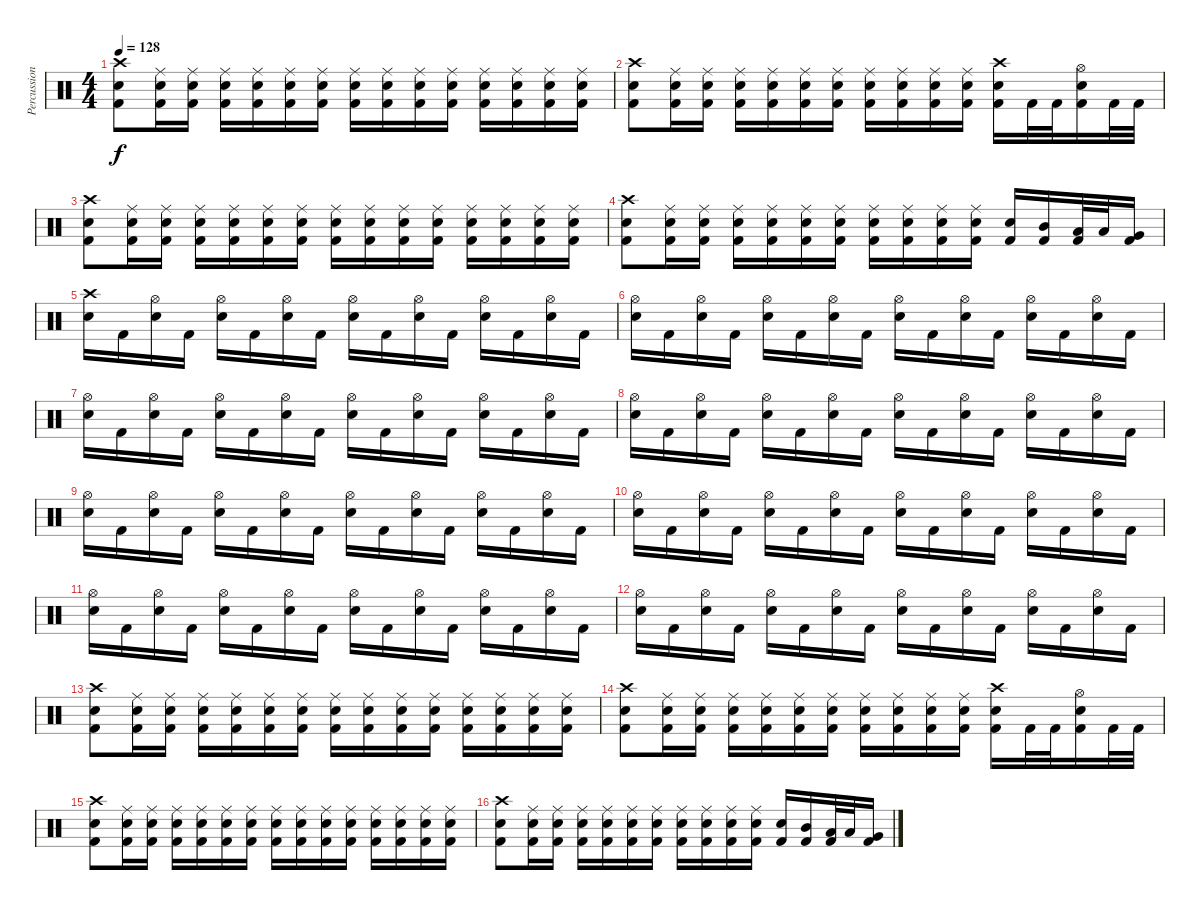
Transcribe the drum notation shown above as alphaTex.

\track ("Percussion" "Percussion") {instrument percussion}
\staff {score}
\articulation defaults
\ts (4 4)
\tempo 128
\clef neutral
\ks c
("Crash high (hit)" "Electric Snare (hit)" "Kick (hit) 2").8{dy f} ("Ride (middle)" "Electric Snare (hit)" "Kick (hit) 2").16 ("Ride (middle)" "Electric Snare (hit)" "Kick (hit) 2").16 ("Ride (middle)" "Electric Snare (hit)" "Kick (hit) 2").16 ("Ride (middle)" "Electric Snare (hit)" "Kick (hit) 2").16 ("Ride (middle)" "Electric Snare (hit)" "Kick (hit) 2").16 ("Ride (middle)" "Electric Snare (hit)" "Kick (hit) 2").16 ("Ride (middle)" "Electric Snare (hit)" "Kick (hit) 2").16 ("Ride (middle)" "Electric Snare (hit)" "Kick (hit) 2").16 ("Ride (middle)" "Electric Snare (hit)" "Kick (hit) 2").16 ("Ride (middle)" "Electric Snare (hit)" "Kick (hit) 2").16 ("Ride (middle)" "Electric Snare (hit)" "Kick (hit) 2").16 ("Ride (middle)" "Electric Snare (hit)" "Kick (hit) 2").16 ("Ride (middle)" "Electric Snare (hit)" "Kick (hit) 2").16 ("Ride (middle)" "Electric Snare (hit)" "Kick (hit) 2").16 |
("Crash high (hit)" "Electric Snare (hit)" "Kick (hit) 2").8 ("Ride (middle)" "Electric Snare (hit)" "Kick (hit) 2").16 ("Ride (middle)" "Electric Snare (hit)" "Kick (hit) 2").16 ("Ride (middle)" "Electric Snare (hit)" "Kick (hit) 2").16 ("Ride (middle)" "Electric Snare (hit)" "Kick (hit) 2").16 ("Ride (middle)" "Electric Snare (hit)" "Kick (hit) 2").16 ("Ride (middle)" "Electric Snare (hit)" "Kick (hit) 2").16 ("Ride (middle)" "Electric Snare (hit)" "Kick (hit) 2").16 ("Ride (middle)" "Electric Snare (hit)" "Kick (hit) 2").16 ("Ride (middle)" "Electric Snare (hit)" "Kick (hit) 2").16 ("Ride (middle)" "Electric Snare (hit)" "Kick (hit) 2").16 ("Crash high (hit)" "Electric Snare (hit)" "Kick (hit) 2").16 "Kick (hit) 2".32 "Kick (hit) 2".32 ("Hi-Hat (open)" "Electric Snare (hit)" "Kick (hit) 2").16 "Kick (hit) 2".32 "Kick (hit) 2".32 |
("Crash high (hit)" "Electric Snare (hit)" "Kick (hit) 2").8 ("Ride (middle)" "Electric Snare (hit)" "Kick (hit) 2").16 ("Ride (middle)" "Electric Snare (hit)" "Kick (hit) 2").16 ("Ride (middle)" "Electric Snare (hit)" "Kick (hit) 2").16 ("Ride (middle)" "Electric Snare (hit)" "Kick (hit) 2").16 ("Ride (middle)" "Electric Snare (hit)" "Kick (hit) 2").16 ("Ride (middle)" "Electric Snare (hit)" "Kick (hit) 2").16 ("Ride (middle)" "Electric Snare (hit)" "Kick (hit) 2").16 ("Ride (middle)" "Electric Snare (hit)" "Kick (hit) 2").16 ("Ride (middle)" "Electric Snare (hit)" "Kick (hit) 2").16 ("Ride (middle)" "Electric Snare (hit)" "Kick (hit) 2").16 ("Ride (middle)" "Electric Snare (hit)" "Kick (hit) 2").16 ("Ride (middle)" "Electric Snare (hit)" "Kick (hit) 2").16 ("Ride (middle)" "Electric Snare (hit)" "Kick (hit) 2").16 ("Ride (middle)" "Electric Snare (hit)" "Kick (hit) 2").16 |
("Crash high (hit)" "Electric Snare (hit)" "Kick (hit) 2").8 ("Ride (middle)" "Electric Snare (hit)" "Kick (hit) 2").16 ("Ride (middle)" "Electric Snare (hit)" "Kick (hit) 2").16 ("Ride (middle)" "Electric Snare (hit)" "Kick (hit) 2").16 ("Ride (middle)" "Electric Snare (hit)" "Kick (hit) 2").16 ("Ride (middle)" "Electric Snare (hit)" "Kick (hit) 2").16 ("Ride (middle)" "Electric Snare (hit)" "Kick (hit) 2").16 ("Ride (middle)" "Electric Snare (hit)" "Kick (hit) 2").16 ("Ride (middle)" "Electric Snare (hit)" "Kick (hit) 2").16 ("Ride (middle)" "Electric Snare (hit)" "Kick (hit) 2").16 ("Ride (middle)" "Electric Snare (hit)" "Kick (hit) 2").16 ("Electric Snare (hit)" "Kick (hit) 2").16 ("Mid Tom (hit)" "Kick (hit) 2").16 ("Low Tom (hit)" "Kick (hit) 2").32 "Low Tom (hit)".32 ("Very Low Tom (hit)" "Kick (hit) 2").16 |
("Crash high (hit)" "Electric Snare (hit)").16 "Kick (hit) 2".16 ("Hi-Hat (open)" "Electric Snare (hit)").16 "Kick (hit) 2".16 ("Hi-Hat (open)" "Electric Snare (hit)").16 "Kick (hit) 2".16 ("Hi-Hat (open)" "Electric Snare (hit)").16 "Kick (hit) 2".16 ("Hi-Hat (open)" "Electric Snare (hit)").16 "Kick (hit) 2".16 ("Hi-Hat (open)" "Electric Snare (hit)").16 "Kick (hit) 2".16 ("Hi-Hat (open)" "Electric Snare (hit)").16 "Kick (hit) 2".16 ("Hi-Hat (open)" "Electric Snare (hit)").16 "Kick (hit) 2".16 |
("Hi-Hat (open)" "Electric Snare (hit)").16 "Kick (hit) 2".16 ("Hi-Hat (open)" "Electric Snare (hit)").16 "Kick (hit) 2".16 ("Hi-Hat (open)" "Electric Snare (hit)").16 "Kick (hit) 2".16 ("Hi-Hat (open)" "Electric Snare (hit)").16 "Kick (hit) 2".16 ("Hi-Hat (open)" "Electric Snare (hit)").16 "Kick (hit) 2".16 ("Hi-Hat (open)" "Electric Snare (hit)").16 "Kick (hit) 2".16 ("Hi-Hat (open)" "Electric Snare (hit)").16 "Kick (hit) 2".16 ("Hi-Hat (open)" "Electric Snare (hit)").16 "Kick (hit) 2".16 |
("Hi-Hat (open)" "Electric Snare (hit)").16 "Kick (hit) 2".16 ("Hi-Hat (open)" "Electric Snare (hit)").16 "Kick (hit) 2".16 ("Hi-Hat (open)" "Electric Snare (hit)").16 "Kick (hit) 2".16 ("Hi-Hat (open)" "Electric Snare (hit)").16 "Kick (hit) 2".16 ("Hi-Hat (open)" "Electric Snare (hit)").16 "Kick (hit) 2".16 ("Hi-Hat (open)" "Electric Snare (hit)").16 "Kick (hit) 2".16 ("Hi-Hat (open)" "Electric Snare (hit)").16 "Kick (hit) 2".16 ("Hi-Hat (open)" "Electric Snare (hit)").16 "Kick (hit) 2".16 |
("Hi-Hat (open)" "Electric Snare (hit)").16 "Kick (hit) 2".16 ("Hi-Hat (open)" "Electric Snare (hit)").16 "Kick (hit) 2".16 ("Hi-Hat (open)" "Electric Snare (hit)").16 "Kick (hit) 2".16 ("Hi-Hat (open)" "Electric Snare (hit)").16 "Kick (hit) 2".16 ("Hi-Hat (open)" "Electric Snare (hit)").16 "Kick (hit) 2".16 ("Hi-Hat (open)" "Electric Snare (hit)").16 "Kick (hit) 2".16 ("Hi-Hat (open)" "Electric Snare (hit)").16 "Kick (hit) 2".16 ("Hi-Hat (open)" "Electric Snare (hit)").16 "Kick (hit) 2".16 |
("Hi-Hat (open)" "Electric Snare (hit)").16 "Kick (hit) 2".16 ("Hi-Hat (open)" "Electric Snare (hit)").16 "Kick (hit) 2".16 ("Hi-Hat (open)" "Electric Snare (hit)").16 "Kick (hit) 2".16 ("Hi-Hat (open)" "Electric Snare (hit)").16 "Kick (hit) 2".16 ("Hi-Hat (open)" "Electric Snare (hit)").16 "Kick (hit) 2".16 ("Hi-Hat (open)" "Electric Snare (hit)").16 "Kick (hit) 2".16 ("Hi-Hat (open)" "Electric Snare (hit)").16 "Kick (hit) 2".16 ("Hi-Hat (open)" "Electric Snare (hit)").16 "Kick (hit) 2".16 |
("Hi-Hat (open)" "Electric Snare (hit)").16 "Kick (hit) 2".16 ("Hi-Hat (open)" "Electric Snare (hit)").16 "Kick (hit) 2".16 ("Hi-Hat (open)" "Electric Snare (hit)").16 "Kick (hit) 2".16 ("Hi-Hat (open)" "Electric Snare (hit)").16 "Kick (hit) 2".16 ("Hi-Hat (open)" "Electric Snare (hit)").16 "Kick (hit) 2".16 ("Hi-Hat (open)" "Electric Snare (hit)").16 "Kick (hit) 2".16 ("Hi-Hat (open)" "Electric Snare (hit)").16 "Kick (hit) 2".16 ("Hi-Hat (open)" "Electric Snare (hit)").16 "Kick (hit) 2".16 |
("Hi-Hat (open)" "Electric Snare (hit)").16 "Kick (hit) 2".16 ("Hi-Hat (open)" "Electric Snare (hit)").16 "Kick (hit) 2".16 ("Hi-Hat (open)" "Electric Snare (hit)").16 "Kick (hit) 2".16 ("Hi-Hat (open)" "Electric Snare (hit)").16 "Kick (hit) 2".16 ("Hi-Hat (open)" "Electric Snare (hit)").16 "Kick (hit) 2".16 ("Hi-Hat (open)" "Electric Snare (hit)").16 "Kick (hit) 2".16 ("Hi-Hat (open)" "Electric Snare (hit)").16 "Kick (hit) 2".16 ("Hi-Hat (open)" "Electric Snare (hit)").16 "Kick (hit) 2".16 |
("Hi-Hat (open)" "Electric Snare (hit)").16 "Kick (hit) 2".16 ("Hi-Hat (open)" "Electric Snare (hit)").16 "Kick (hit) 2".16 ("Hi-Hat (open)" "Electric Snare (hit)").16 "Kick (hit) 2".16 ("Hi-Hat (open)" "Electric Snare (hit)").16 "Kick (hit) 2".16 ("Hi-Hat (open)" "Electric Snare (hit)").16 "Kick (hit) 2".16 ("Hi-Hat (open)" "Electric Snare (hit)").16 "Kick (hit) 2".16 ("Hi-Hat (open)" "Electric Snare (hit)").16 "Kick (hit) 2".16 ("Hi-Hat (open)" "Electric Snare (hit)").16 "Kick (hit) 2".16 |
("Crash high (hit)" "Electric Snare (hit)" "Kick (hit) 2").8 ("Ride (middle)" "Electric Snare (hit)" "Kick (hit) 2").16 ("Ride (middle)" "Electric Snare (hit)" "Kick (hit) 2").16 ("Ride (middle)" "Electric Snare (hit)" "Kick (hit) 2").16 ("Ride (middle)" "Electric Snare (hit)" "Kick (hit) 2").16 ("Ride (middle)" "Electric Snare (hit)" "Kick (hit) 2").16 ("Ride (middle)" "Electric Snare (hit)" "Kick (hit) 2").16 ("Ride (middle)" "Electric Snare (hit)" "Kick (hit) 2").16 ("Ride (middle)" "Electric Snare (hit)" "Kick (hit) 2").16 ("Ride (middle)" "Electric Snare (hit)" "Kick (hit) 2").16 ("Ride (middle)" "Electric Snare (hit)" "Kick (hit) 2").16 ("Ride (middle)" "Electric Snare (hit)" "Kick (hit) 2").16 ("Ride (middle)" "Electric Snare (hit)" "Kick (hit) 2").16 ("Ride (middle)" "Electric Snare (hit)" "Kick (hit) 2").16 ("Ride (middle)" "Electric Snare (hit)" "Kick (hit) 2").16 |
("Crash high (hit)" "Electric Snare (hit)" "Kick (hit) 2").8 ("Ride (middle)" "Electric Snare (hit)" "Kick (hit) 2").16 ("Ride (middle)" "Electric Snare (hit)" "Kick (hit) 2").16 ("Ride (middle)" "Electric Snare (hit)" "Kick (hit) 2").16 ("Ride (middle)" "Electric Snare (hit)" "Kick (hit) 2").16 ("Ride (middle)" "Electric Snare (hit)" "Kick (hit) 2").16 ("Ride (middle)" "Electric Snare (hit)" "Kick (hit) 2").16 ("Ride (middle)" "Electric Snare (hit)" "Kick (hit) 2").16 ("Ride (middle)" "Electric Snare (hit)" "Kick (hit) 2").16 ("Ride (middle)" "Electric Snare (hit)" "Kick (hit) 2").16 ("Ride (middle)" "Electric Snare (hit)" "Kick (hit) 2").16 ("Crash high (hit)" "Electric Snare (hit)" "Kick (hit) 2").16 "Kick (hit) 2".32 "Kick (hit) 2".32 ("Hi-Hat (open)" "Electric Snare (hit)" "Kick (hit) 2").16 "Kick (hit) 2".32 "Kick (hit) 2".32 |
("Crash high (hit)" "Electric Snare (hit)" "Kick (hit) 2").8 ("Ride (middle)" "Electric Snare (hit)" "Kick (hit) 2").16 ("Ride (middle)" "Electric Snare (hit)" "Kick (hit) 2").16 ("Ride (middle)" "Electric Snare (hit)" "Kick (hit) 2").16 ("Ride (middle)" "Electric Snare (hit)" "Kick (hit) 2").16 ("Ride (middle)" "Electric Snare (hit)" "Kick (hit) 2").16 ("Ride (middle)" "Electric Snare (hit)" "Kick (hit) 2").16 ("Ride (middle)" "Electric Snare (hit)" "Kick (hit) 2").16 ("Ride (middle)" "Electric Snare (hit)" "Kick (hit) 2").16 ("Ride (middle)" "Electric Snare (hit)" "Kick (hit) 2").16 ("Ride (middle)" "Electric Snare (hit)" "Kick (hit) 2").16 ("Ride (middle)" "Electric Snare (hit)" "Kick (hit) 2").16 ("Ride (middle)" "Electric Snare (hit)" "Kick (hit) 2").16 ("Ride (middle)" "Electric Snare (hit)" "Kick (hit) 2").16 ("Ride (middle)" "Electric Snare (hit)" "Kick (hit) 2").16 |
("Crash high (hit)" "Electric Snare (hit)" "Kick (hit) 2").8 ("Ride (middle)" "Electric Snare (hit)" "Kick (hit) 2").16 ("Ride (middle)" "Electric Snare (hit)" "Kick (hit) 2").16 ("Ride (middle)" "Electric Snare (hit)" "Kick (hit) 2").16 ("Ride (middle)" "Electric Snare (hit)" "Kick (hit) 2").16 ("Ride (middle)" "Electric Snare (hit)" "Kick (hit) 2").16 ("Ride (middle)" "Electric Snare (hit)" "Kick (hit) 2").16 ("Ride (middle)" "Electric Snare (hit)" "Kick (hit) 2").16 ("Ride (middle)" "Electric Snare (hit)" "Kick (hit) 2").16 ("Ride (middle)" "Electric Snare (hit)" "Kick (hit) 2").16 ("Ride (middle)" "Electric Snare (hit)" "Kick (hit) 2").16 ("Electric Snare (hit)" "Kick (hit) 2").16 ("Mid Tom (hit)" "Kick (hit) 2").16 ("Low Tom (hit)" "Kick (hit) 2").32 "Low Tom (hit)".32 ("Very Low Tom (hit)" "Kick (hit) 2").16
